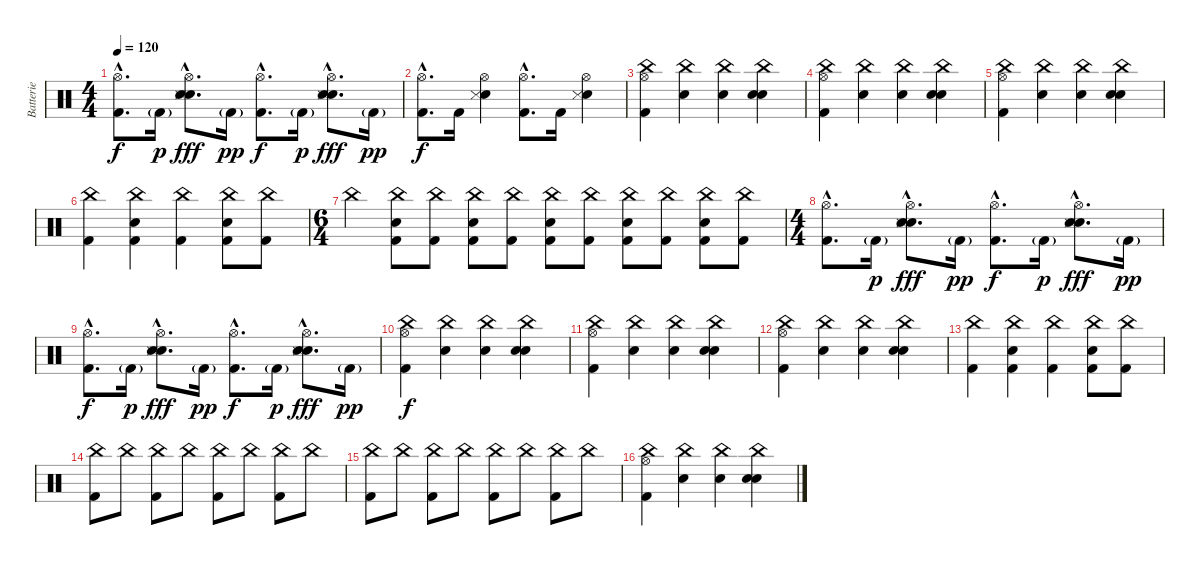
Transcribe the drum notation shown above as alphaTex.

\track ("Batterie" "Batterie") {instrument percussion}
\staff {score}
\articulation defaults
\ts (4 4)
\tempo 120
\clef neutral
\ks c
("Kick (hit) 2"{hac} "Hi-Hat (open)"{hac}).8{d dy f} "Kick (hit) 2"{g}.16{dy p} ("Hand Clap (hit)"{hac} "Electric Snare (hit)"{hac} "Hi-Hat (open)"{hac} "Snare (side stick) 3"{hac}).8{d dy fff} "Kick (hit) 2"{g}.16{dy pp} ("Kick (hit) 2"{hac} "Hi-Hat (open)"{hac}).8{d dy f} "Kick (hit) 2"{g}.16{dy p} ("Hand Clap (hit)"{hac} "Electric Snare (hit)"{hac} "Hi-Hat (open)"{hac} "Snare (side stick) 3"{hac}).8{d dy fff} "Kick (hit) 2"{g}.16{dy pp} |
("Kick (hit) 2"{hac} "Hi-Hat (open)"{hac}).8{d dy f} "Kick (hit) 2".16 ("Electric Snare (hit)" "Hi-Hat (open)" "Snare (side stick) 3").4 ("Kick (hit) 2"{hac} "Hi-Hat (open)"{hac}).8{d} "Kick (hit) 2".16 ("Electric Snare (hit)" "Hi-Hat (open)" "Snare (side stick) 3").4 |
("China (hit)" "Kick (hit) 2" "Hi-Hat (open)").4 ("China (hit)" "Electric Snare (hit)").4 ("China (hit)" "Electric Snare (hit)").4 ("China (hit)" "Electric Snare (hit)" "Hand Clap (hit)").4 |
("China (hit)" "Kick (hit) 2" "Hi-Hat (open)").4 ("China (hit)" "Electric Snare (hit)").4 ("China (hit)" "Electric Snare (hit)").4 ("China (hit)" "Electric Snare (hit)" "Hand Clap (hit)").4 |
("China (hit)" "Kick (hit) 2" "Hi-Hat (open)").4 ("China (hit)" "Electric Snare (hit)").4 ("China (hit)" "Electric Snare (hit)").4 ("China (hit)" "Electric Snare (hit)" "Hand Clap (hit)").4 |
("China (hit)" "Kick (hit) 2").4 ("China (hit)" "Electric Snare (hit)" "Kick (hit) 2").4 ("China (hit)" "Kick (hit) 2").4 ("China (hit)" "Electric Snare (hit)" "Kick (hit) 2").8 ("China (hit)" "Kick (hit) 2").8 |
\ts (6 4)
"China (hit)".4 ("China (hit)" "Kick (hit) 2" "Electric Snare (hit)").8 ("China (hit)" "Kick (hit) 2").8 ("China (hit)" "Kick (hit) 2" "Electric Snare (hit)").8 ("China (hit)" "Kick (hit) 2").8 ("China (hit)" "Kick (hit) 2" "Electric Snare (hit)").8 ("China (hit)" "Kick (hit) 2").8 ("China (hit)" "Kick (hit) 2" "Electric Snare (hit)").8 ("China (hit)" "Kick (hit) 2").8 ("China (hit)" "Kick (hit) 2" "Electric Snare (hit)").8 ("China (hit)" "Kick (hit) 2").8 |
\ts (4 4)
("Kick (hit) 2"{hac} "Hi-Hat (open)"{hac}).8{d} "Kick (hit) 2"{g}.16{dy p} ("Hand Clap (hit)"{hac} "Electric Snare (hit)"{hac} "Hi-Hat (open)"{hac} "Snare (side stick) 3"{hac}).8{d dy fff} "Kick (hit) 2"{g}.16{dy pp} ("Kick (hit) 2"{hac} "Hi-Hat (open)"{hac}).8{d dy f} "Kick (hit) 2"{g}.16{dy p} ("Hand Clap (hit)"{hac} "Electric Snare (hit)"{hac} "Hi-Hat (open)"{hac} "Snare (side stick) 3"{hac}).8{d dy fff} "Kick (hit) 2"{g}.16{dy pp} |
("Kick (hit) 2"{hac} "Hi-Hat (open)"{hac}).8{d dy f} "Kick (hit) 2"{g}.16{dy p} ("Hand Clap (hit)"{hac} "Electric Snare (hit)"{hac} "Hi-Hat (open)"{hac} "Snare (side stick) 3"{hac}).8{d dy fff} "Kick (hit) 2"{g}.16{dy pp} ("Kick (hit) 2"{hac} "Hi-Hat (open)"{hac}).8{d dy f} "Kick (hit) 2"{g}.16{dy p} ("Hand Clap (hit)"{hac} "Electric Snare (hit)"{hac} "Hi-Hat (open)"{hac} "Snare (side stick) 3"{hac}).8{d dy fff} "Kick (hit) 2"{g}.16{dy pp} |
("China (hit)" "Kick (hit) 2" "Hi-Hat (open)").4{dy f} ("China (hit)" "Electric Snare (hit)").4 ("China (hit)" "Electric Snare (hit)").4 ("China (hit)" "Electric Snare (hit)" "Hand Clap (hit)").4 |
("China (hit)" "Kick (hit) 2" "Hi-Hat (open)").4 ("China (hit)" "Electric Snare (hit)").4 ("China (hit)" "Electric Snare (hit)").4 ("China (hit)" "Electric Snare (hit)" "Hand Clap (hit)").4 |
("China (hit)" "Kick (hit) 2" "Hi-Hat (open)").4 ("China (hit)" "Electric Snare (hit)").4 ("China (hit)" "Electric Snare (hit)").4 ("China (hit)" "Electric Snare (hit)" "Hand Clap (hit)").4 |
("China (hit)" "Kick (hit) 2").4 ("China (hit)" "Electric Snare (hit)" "Kick (hit) 2").4 ("China (hit)" "Kick (hit) 2").4 ("China (hit)" "Electric Snare (hit)" "Kick (hit) 2").8 ("China (hit)" "Kick (hit) 2").8 |
("China (hit)" "Kick (hit) 2").8 "China (hit)".8 ("China (hit)" "Kick (hit) 2").8 "China (hit)".8 ("China (hit)" "Kick (hit) 2").8 "China (hit)".8 ("China (hit)" "Kick (hit) 2").8 "China (hit)".8 |
("China (hit)" "Kick (hit) 2").8 "China (hit)".8 ("China (hit)" "Kick (hit) 2").8 "China (hit)".8 ("China (hit)" "Kick (hit) 2").8 "China (hit)".8 ("China (hit)" "Kick (hit) 2").8 "China (hit)".8 |
("China (hit)" "Kick (hit) 2" "Hi-Hat (open)").4 ("China (hit)" "Electric Snare (hit)").4 ("China (hit)" "Electric Snare (hit)").4 ("China (hit)" "Electric Snare (hit)" "Hand Clap (hit)").4
